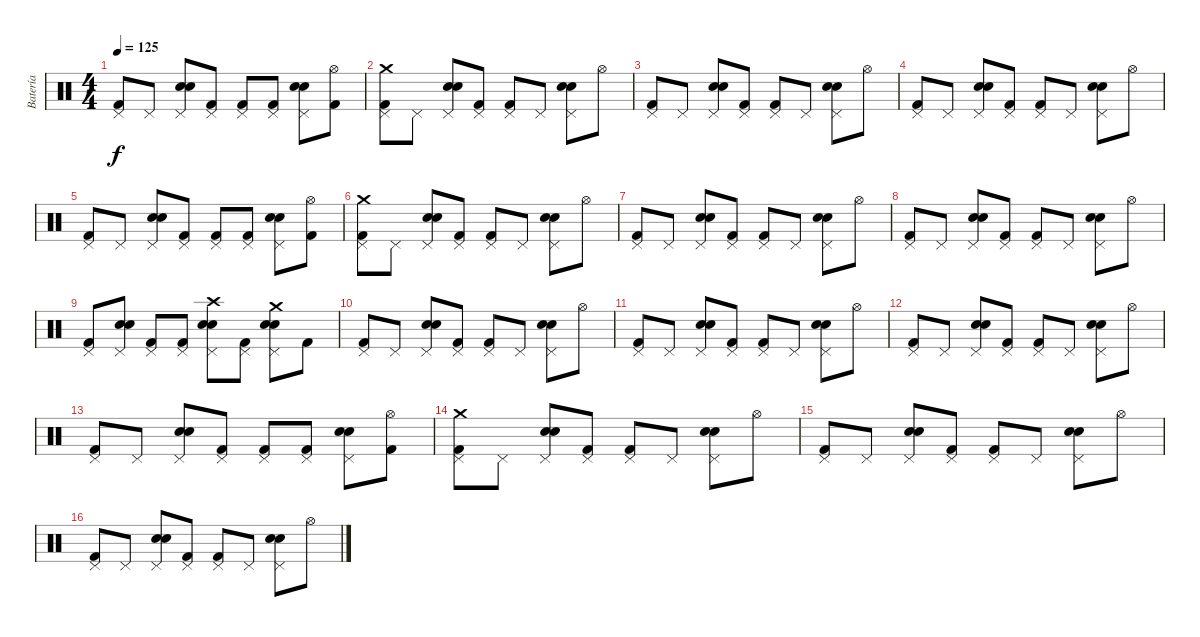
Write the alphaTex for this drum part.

\track ("Batería" "Batería") {instrument percussion}
\staff {score}
\articulation defaults
\ts (4 4)
\tempo 125
\clef neutral
\ks c
("Kick (hit) 2" "Pedal Hi-Hat (hit)").8{dy f} "Pedal Hi-Hat (hit)".8 ("Electric Snare (hit)" "Pedal Hi-Hat (hit)" "Snare (hit) 2").8 ("Kick (hit) 2" "Pedal Hi-Hat (hit)").8 ("Kick (hit) 2" "Pedal Hi-Hat (hit)").8 ("Kick (hit) 2" "Pedal Hi-Hat (hit)").8 ("Electric Snare (hit)" "Pedal Hi-Hat (hit)" "Snare (hit) 2").8 ("Kick (hit) 2" "Hi-Hat (open)").8 |
("Kick (hit) 2" "Pedal Hi-Hat (hit)" "Crash medium (hit)").8 "Pedal Hi-Hat (hit)".8 ("Electric Snare (hit)" "Pedal Hi-Hat (hit)" "Snare (hit) 2").8 ("Kick (hit) 2" "Pedal Hi-Hat (hit)").8 ("Kick (hit) 2" "Pedal Hi-Hat (hit)").8 "Pedal Hi-Hat (hit)".8 ("Electric Snare (hit)" "Pedal Hi-Hat (hit)" "Snare (hit) 2").8 "Hi-Hat (open)".8 |
("Kick (hit) 2" "Pedal Hi-Hat (hit)").8 "Pedal Hi-Hat (hit)".8 ("Electric Snare (hit)" "Pedal Hi-Hat (hit)" "Snare (hit) 2").8 ("Kick (hit) 2" "Pedal Hi-Hat (hit)").8 ("Kick (hit) 2" "Pedal Hi-Hat (hit)").8 "Pedal Hi-Hat (hit)".8 ("Electric Snare (hit)" "Pedal Hi-Hat (hit)" "Snare (hit) 2").8 "Hi-Hat (open)".8 |
("Kick (hit) 2" "Pedal Hi-Hat (hit)").8 "Pedal Hi-Hat (hit)".8 ("Electric Snare (hit)" "Pedal Hi-Hat (hit)" "Snare (hit) 2").8 ("Kick (hit) 2" "Pedal Hi-Hat (hit)").8 ("Kick (hit) 2" "Pedal Hi-Hat (hit)").8 "Pedal Hi-Hat (hit)".8 ("Electric Snare (hit)" "Pedal Hi-Hat (hit)" "Snare (hit) 2").8 "Hi-Hat (open)".8 |
("Kick (hit) 2" "Pedal Hi-Hat (hit)").8 "Pedal Hi-Hat (hit)".8 ("Electric Snare (hit)" "Pedal Hi-Hat (hit)" "Snare (hit) 2").8 ("Kick (hit) 2" "Pedal Hi-Hat (hit)").8 ("Kick (hit) 2" "Pedal Hi-Hat (hit)").8 ("Kick (hit) 2" "Pedal Hi-Hat (hit)").8 ("Electric Snare (hit)" "Pedal Hi-Hat (hit)" "Snare (hit) 2").8 ("Kick (hit) 2" "Hi-Hat (open)").8 |
("Kick (hit) 2" "Pedal Hi-Hat (hit)" "Crash medium (hit)").8 "Pedal Hi-Hat (hit)".8 ("Electric Snare (hit)" "Pedal Hi-Hat (hit)" "Snare (hit) 2").8 ("Kick (hit) 2" "Pedal Hi-Hat (hit)").8 ("Kick (hit) 2" "Pedal Hi-Hat (hit)").8 "Pedal Hi-Hat (hit)".8 ("Electric Snare (hit)" "Pedal Hi-Hat (hit)" "Snare (hit) 2").8 "Hi-Hat (open)".8 |
("Kick (hit) 2" "Pedal Hi-Hat (hit)").8 "Pedal Hi-Hat (hit)".8 ("Electric Snare (hit)" "Pedal Hi-Hat (hit)" "Snare (hit) 2").8 ("Kick (hit) 2" "Pedal Hi-Hat (hit)").8 ("Kick (hit) 2" "Pedal Hi-Hat (hit)").8 "Pedal Hi-Hat (hit)".8 ("Electric Snare (hit)" "Pedal Hi-Hat (hit)" "Snare (hit) 2").8 "Hi-Hat (open)".8 |
("Kick (hit) 2" "Pedal Hi-Hat (hit)").8 "Pedal Hi-Hat (hit)".8 ("Electric Snare (hit)" "Pedal Hi-Hat (hit)" "Snare (hit) 2").8 ("Kick (hit) 2" "Pedal Hi-Hat (hit)").8 ("Kick (hit) 2" "Pedal Hi-Hat (hit)").8 "Pedal Hi-Hat (hit)".8 ("Electric Snare (hit)" "Pedal Hi-Hat (hit)" "Snare (hit) 2").8 "Hi-Hat (open)".8 |
("Kick (hit) 2" "Pedal Hi-Hat (hit)").8 ("Electric Snare (hit)" "Pedal Hi-Hat (hit)" "Snare (hit) 2").8 ("Kick (hit) 2" "Pedal Hi-Hat (hit)").8 ("Kick (hit) 2" "Pedal Hi-Hat (hit)").8 ("Electric Snare (hit)" "Pedal Hi-Hat (hit)" "Snare (hit) 2" "Crash high (hit)").8 ("Kick (hit) 2" "Pedal Hi-Hat (hit)").8 ("Electric Snare (hit)" "Pedal Hi-Hat (hit)" "Snare (hit) 2" "Crash medium (hit)").8 "Kick (hit) 2".8 |
("Kick (hit) 2" "Pedal Hi-Hat (hit)").8 "Pedal Hi-Hat (hit)".8 ("Electric Snare (hit)" "Pedal Hi-Hat (hit)" "Snare (hit) 2").8 ("Kick (hit) 2" "Pedal Hi-Hat (hit)").8 ("Kick (hit) 2" "Pedal Hi-Hat (hit)").8 "Pedal Hi-Hat (hit)".8 ("Electric Snare (hit)" "Pedal Hi-Hat (hit)" "Snare (hit) 2").8 "Hi-Hat (open)".8 |
("Kick (hit) 2" "Pedal Hi-Hat (hit)").8 "Pedal Hi-Hat (hit)".8 ("Electric Snare (hit)" "Pedal Hi-Hat (hit)" "Snare (hit) 2").8 ("Kick (hit) 2" "Pedal Hi-Hat (hit)").8 ("Kick (hit) 2" "Pedal Hi-Hat (hit)").8 "Pedal Hi-Hat (hit)".8 ("Electric Snare (hit)" "Pedal Hi-Hat (hit)" "Snare (hit) 2").8 "Hi-Hat (open)".8 |
("Kick (hit) 2" "Pedal Hi-Hat (hit)").8 "Pedal Hi-Hat (hit)".8 ("Electric Snare (hit)" "Pedal Hi-Hat (hit)" "Snare (hit) 2").8 ("Kick (hit) 2" "Pedal Hi-Hat (hit)").8 ("Kick (hit) 2" "Pedal Hi-Hat (hit)").8 "Pedal Hi-Hat (hit)".8 ("Electric Snare (hit)" "Pedal Hi-Hat (hit)" "Snare (hit) 2").8 "Hi-Hat (open)".8 |
("Kick (hit) 2" "Pedal Hi-Hat (hit)").8 "Pedal Hi-Hat (hit)".8 ("Electric Snare (hit)" "Pedal Hi-Hat (hit)" "Snare (hit) 2").8 ("Kick (hit) 2" "Pedal Hi-Hat (hit)").8 ("Kick (hit) 2" "Pedal Hi-Hat (hit)").8 ("Kick (hit) 2" "Pedal Hi-Hat (hit)").8 ("Electric Snare (hit)" "Pedal Hi-Hat (hit)" "Snare (hit) 2").8 ("Kick (hit) 2" "Hi-Hat (open)").8 |
("Kick (hit) 2" "Pedal Hi-Hat (hit)" "Crash medium (hit)").8 "Pedal Hi-Hat (hit)".8 ("Electric Snare (hit)" "Pedal Hi-Hat (hit)" "Snare (hit) 2").8 ("Kick (hit) 2" "Pedal Hi-Hat (hit)").8 ("Kick (hit) 2" "Pedal Hi-Hat (hit)").8 "Pedal Hi-Hat (hit)".8 ("Electric Snare (hit)" "Pedal Hi-Hat (hit)" "Snare (hit) 2").8 "Hi-Hat (open)".8 |
("Kick (hit) 2" "Pedal Hi-Hat (hit)").8 "Pedal Hi-Hat (hit)".8 ("Electric Snare (hit)" "Pedal Hi-Hat (hit)" "Snare (hit) 2").8 ("Kick (hit) 2" "Pedal Hi-Hat (hit)").8 ("Kick (hit) 2" "Pedal Hi-Hat (hit)").8 "Pedal Hi-Hat (hit)".8 ("Electric Snare (hit)" "Pedal Hi-Hat (hit)" "Snare (hit) 2").8 "Hi-Hat (open)".8 |
("Kick (hit) 2" "Pedal Hi-Hat (hit)").8 "Pedal Hi-Hat (hit)".8 ("Electric Snare (hit)" "Pedal Hi-Hat (hit)" "Snare (hit) 2").8 ("Kick (hit) 2" "Pedal Hi-Hat (hit)").8 ("Kick (hit) 2" "Pedal Hi-Hat (hit)").8 "Pedal Hi-Hat (hit)".8 ("Electric Snare (hit)" "Pedal Hi-Hat (hit)" "Snare (hit) 2").8 "Hi-Hat (open)".8
